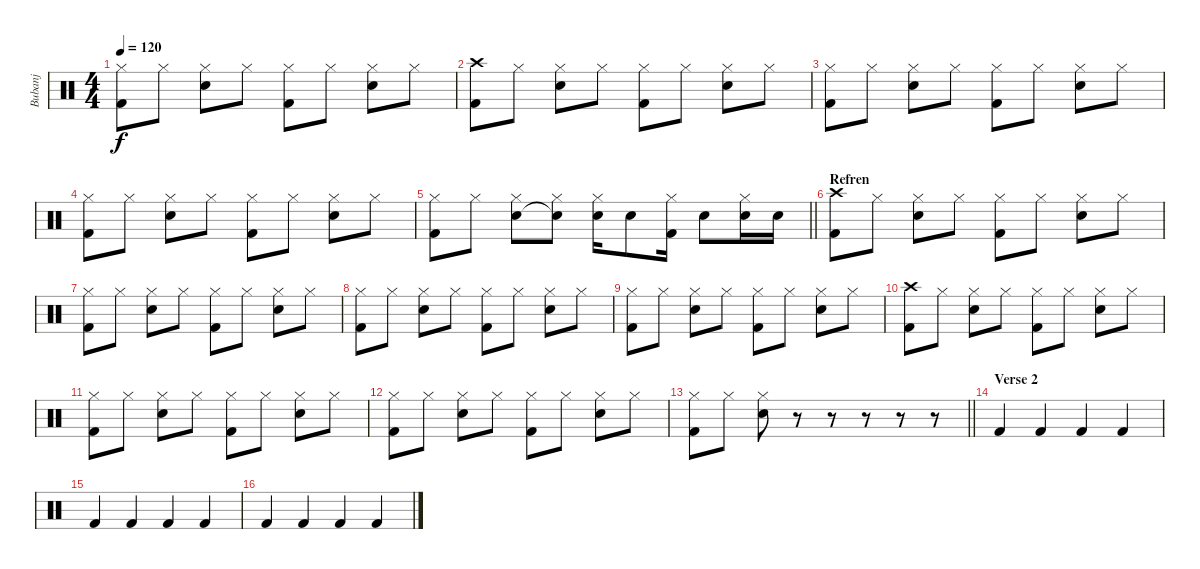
\track ("Bubanj" "Bubanj") {instrument percussion}
\staff {score}
\articulation defaults
\ts (4 4)
\tempo 120
\clef neutral
\ks c
("Hi-Hat (closed)" "Kick (hit) 2").8{dy f} "Hi-Hat (closed)".8 ("Hi-Hat (closed)" "Electric Snare (hit)").8 "Hi-Hat (closed)".8 ("Hi-Hat (closed)" "Kick (hit) 2").8 "Hi-Hat (closed)".8 ("Hi-Hat (closed)" "Electric Snare (hit)").8 "Hi-Hat (closed)".8 |
("Crash high (hit)" "Kick (hit) 2").8 "Hi-Hat (closed)".8 ("Hi-Hat (closed)" "Electric Snare (hit)").8 "Hi-Hat (closed)".8 ("Hi-Hat (closed)" "Kick (hit) 2").8 "Hi-Hat (closed)".8 ("Hi-Hat (closed)" "Electric Snare (hit)").8 "Hi-Hat (closed)".8 |
("Hi-Hat (closed)" "Kick (hit) 2").8 "Hi-Hat (closed)".8 ("Hi-Hat (closed)" "Electric Snare (hit)").8 "Hi-Hat (closed)".8 ("Hi-Hat (closed)" "Kick (hit) 2").8 "Hi-Hat (closed)".8 ("Hi-Hat (closed)" "Electric Snare (hit)").8 "Hi-Hat (closed)".8 |
("Hi-Hat (closed)" "Kick (hit) 2").8 "Hi-Hat (closed)".8 ("Hi-Hat (closed)" "Electric Snare (hit)").8 "Hi-Hat (closed)".8 ("Hi-Hat (closed)" "Kick (hit) 2").8 "Hi-Hat (closed)".8 ("Hi-Hat (closed)" "Electric Snare (hit)").8 "Hi-Hat (closed)".8 |
\barLineRight lightlight
("Hi-Hat (closed)" "Kick (hit) 2").8 "Hi-Hat (closed)".8 ("Hi-Hat (closed)" "Electric Snare (hit)").8 ("Hi-Hat (closed)" "Snare (hit)"{t}).8 ("Hi-Hat (closed)" "Electric Snare (hit)").16 "Electric Snare (hit)".8 ("Hi-Hat (closed)" "Kick (hit) 2").16 "Electric Snare (hit)".8 ("Hi-Hat (closed)" "Electric Snare (hit)").16 "Electric Snare (hit)".16 |
\section ("" "Refren ")
("Crash high (hit)" "Kick (hit) 2").8 "Hi-Hat (closed)".8 ("Hi-Hat (closed)" "Electric Snare (hit)").8 "Hi-Hat (closed)".8 ("Hi-Hat (closed)" "Kick (hit) 2").8 "Hi-Hat (closed)".8 ("Hi-Hat (closed)" "Electric Snare (hit)").8 "Hi-Hat (closed)".8 |
("Hi-Hat (closed)" "Kick (hit) 2").8 "Hi-Hat (closed)".8 ("Hi-Hat (closed)" "Electric Snare (hit)").8 "Hi-Hat (closed)".8 ("Hi-Hat (closed)" "Kick (hit) 2").8 "Hi-Hat (closed)".8 ("Hi-Hat (closed)" "Electric Snare (hit)").8 "Hi-Hat (closed)".8 |
("Hi-Hat (closed)" "Kick (hit) 2").8 "Hi-Hat (closed)".8 ("Hi-Hat (closed)" "Electric Snare (hit)").8 "Hi-Hat (closed)".8 ("Hi-Hat (closed)" "Kick (hit) 2").8 "Hi-Hat (closed)".8 ("Hi-Hat (closed)" "Electric Snare (hit)").8 "Hi-Hat (closed)".8 |
("Hi-Hat (closed)" "Kick (hit) 2").8 "Hi-Hat (closed)".8 ("Hi-Hat (closed)" "Electric Snare (hit)").8 "Hi-Hat (closed)".8 ("Hi-Hat (closed)" "Kick (hit) 2").8 "Hi-Hat (closed)".8 ("Hi-Hat (closed)" "Electric Snare (hit)").8 "Hi-Hat (closed)".8 |
("Crash high (hit)" "Kick (hit) 2").8 "Hi-Hat (closed)".8 ("Hi-Hat (closed)" "Electric Snare (hit)").8 "Hi-Hat (closed)".8 ("Hi-Hat (closed)" "Kick (hit) 2").8 "Hi-Hat (closed)".8 ("Hi-Hat (closed)" "Electric Snare (hit)").8 "Hi-Hat (closed)".8 |
("Hi-Hat (closed)" "Kick (hit) 2").8 "Hi-Hat (closed)".8 ("Hi-Hat (closed)" "Electric Snare (hit)").8 "Hi-Hat (closed)".8 ("Hi-Hat (closed)" "Kick (hit) 2").8 "Hi-Hat (closed)".8 ("Hi-Hat (closed)" "Electric Snare (hit)").8 "Hi-Hat (closed)".8 |
("Hi-Hat (closed)" "Kick (hit) 2").8 "Hi-Hat (closed)".8 ("Hi-Hat (closed)" "Electric Snare (hit)").8 "Hi-Hat (closed)".8 ("Hi-Hat (closed)" "Kick (hit) 2").8 "Hi-Hat (closed)".8 ("Hi-Hat (closed)" "Electric Snare (hit)").8 "Hi-Hat (closed)".8 |
\barLineRight lightlight
("Hi-Hat (closed)" "Kick (hit) 2").8 "Hi-Hat (closed)".8 ("Hi-Hat (closed)" "Electric Snare (hit)").8 r.8 r.8 r.8 r.8 r.8 |
\section ("" "Verse 2")
"Kick (hit) 2".4 "Kick (hit) 2".4 "Kick (hit) 2".4 "Kick (hit) 2".4 |
"Kick (hit) 2".4 "Kick (hit) 2".4 "Kick (hit) 2".4 "Kick (hit) 2".4 |
"Kick (hit) 2".4 "Kick (hit) 2".4 "Kick (hit) 2".4 "Kick (hit) 2".4
